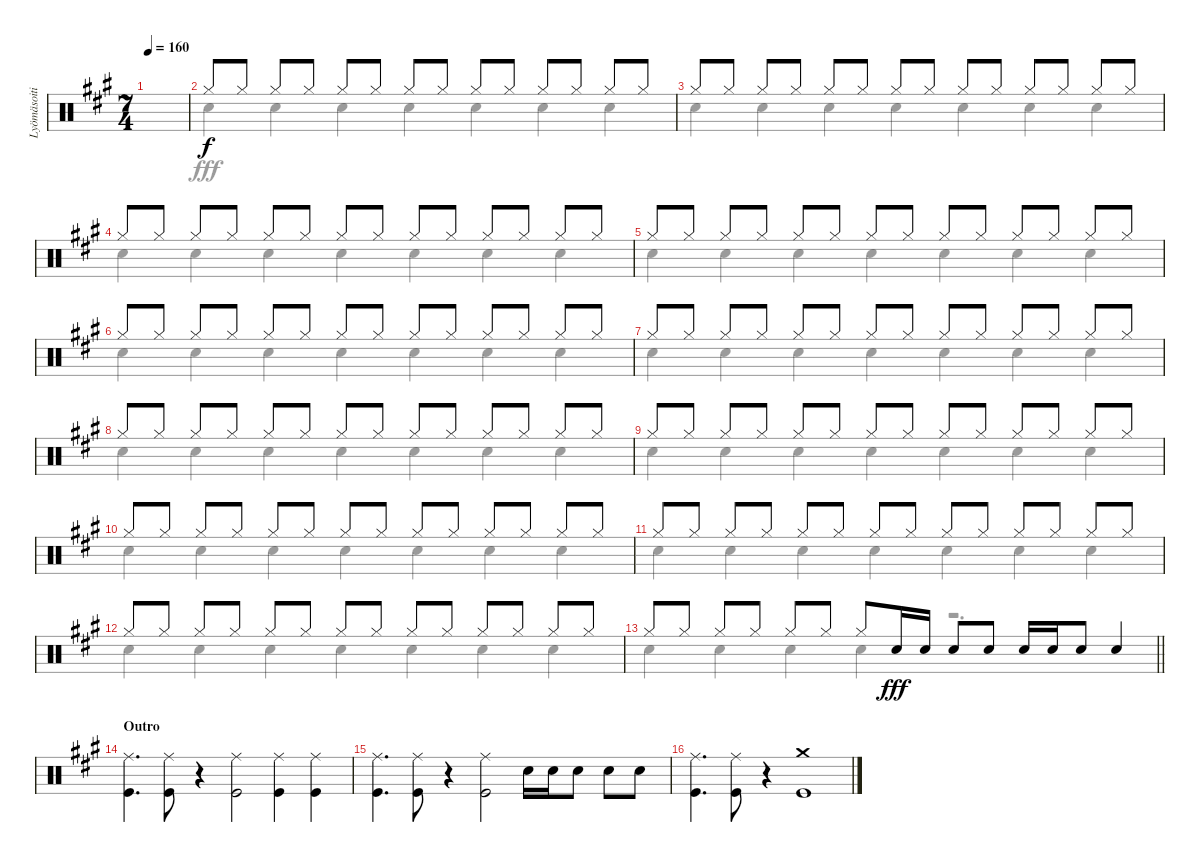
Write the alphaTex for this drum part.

\track ("Lyömäsoitin" "Lyömäsoiti") {instrument percussion}
\staff {score}
\articulation defaults
\voice
\ts (7 4)
\tempo 160
\clef neutral
\ks a
|
"Hi-Hat (closed)".8{dy f} "Hi-Hat (closed)".8 "Hi-Hat (closed)".8 "Hi-Hat (closed)".8 "Hi-Hat (closed)".8 "Hi-Hat (closed)".8 "Hi-Hat (closed)".8 "Hi-Hat (closed)".8 "Hi-Hat (closed)".8 "Hi-Hat (closed)".8 "Hi-Hat (closed)".8 "Hi-Hat (closed)".8 "Hi-Hat (closed)".8 "Hi-Hat (closed)".8 |
"Hi-Hat (closed)".8 "Hi-Hat (closed)".8 "Hi-Hat (closed)".8 "Hi-Hat (closed)".8 "Hi-Hat (closed)".8 "Hi-Hat (closed)".8 "Hi-Hat (closed)".8 "Hi-Hat (closed)".8 "Hi-Hat (closed)".8 "Hi-Hat (closed)".8 "Hi-Hat (closed)".8 "Hi-Hat (closed)".8 "Hi-Hat (closed)".8 "Hi-Hat (closed)".8 |
"Hi-Hat (closed)".8 "Hi-Hat (closed)".8 "Hi-Hat (closed)".8 "Hi-Hat (closed)".8 "Hi-Hat (closed)".8 "Hi-Hat (closed)".8 "Hi-Hat (closed)".8 "Hi-Hat (closed)".8 "Hi-Hat (closed)".8 "Hi-Hat (closed)".8 "Hi-Hat (closed)".8 "Hi-Hat (closed)".8 "Hi-Hat (closed)".8 "Hi-Hat (closed)".8 |
"Hi-Hat (closed)".8 "Hi-Hat (closed)".8 "Hi-Hat (closed)".8 "Hi-Hat (closed)".8 "Hi-Hat (closed)".8 "Hi-Hat (closed)".8 "Hi-Hat (closed)".8 "Hi-Hat (closed)".8 "Hi-Hat (closed)".8 "Hi-Hat (closed)".8 "Hi-Hat (closed)".8 "Hi-Hat (closed)".8 "Hi-Hat (closed)".8 "Hi-Hat (closed)".8 |
"Hi-Hat (closed)".8 "Hi-Hat (closed)".8 "Hi-Hat (closed)".8 "Hi-Hat (closed)".8 "Hi-Hat (closed)".8 "Hi-Hat (closed)".8 "Hi-Hat (closed)".8 "Hi-Hat (closed)".8 "Hi-Hat (closed)".8 "Hi-Hat (closed)".8 "Hi-Hat (closed)".8 "Hi-Hat (closed)".8 "Hi-Hat (closed)".8 "Hi-Hat (closed)".8 |
"Hi-Hat (closed)".8 "Hi-Hat (closed)".8 "Hi-Hat (closed)".8 "Hi-Hat (closed)".8 "Hi-Hat (closed)".8 "Hi-Hat (closed)".8 "Hi-Hat (closed)".8 "Hi-Hat (closed)".8 "Hi-Hat (closed)".8 "Hi-Hat (closed)".8 "Hi-Hat (closed)".8 "Hi-Hat (closed)".8 "Hi-Hat (closed)".8 "Hi-Hat (closed)".8 |
"Hi-Hat (closed)".8 "Hi-Hat (closed)".8 "Hi-Hat (closed)".8 "Hi-Hat (closed)".8 "Hi-Hat (closed)".8 "Hi-Hat (closed)".8 "Hi-Hat (closed)".8 "Hi-Hat (closed)".8 "Hi-Hat (closed)".8 "Hi-Hat (closed)".8 "Hi-Hat (closed)".8 "Hi-Hat (closed)".8 "Hi-Hat (closed)".8 "Hi-Hat (closed)".8 |
"Hi-Hat (closed)".8 "Hi-Hat (closed)".8 "Hi-Hat (closed)".8 "Hi-Hat (closed)".8 "Hi-Hat (closed)".8 "Hi-Hat (closed)".8 "Hi-Hat (closed)".8 "Hi-Hat (closed)".8 "Hi-Hat (closed)".8 "Hi-Hat (closed)".8 "Hi-Hat (closed)".8 "Hi-Hat (closed)".8 "Hi-Hat (closed)".8 "Hi-Hat (closed)".8 |
"Hi-Hat (closed)".8 "Hi-Hat (closed)".8 "Hi-Hat (closed)".8 "Hi-Hat (closed)".8 "Hi-Hat (closed)".8 "Hi-Hat (closed)".8 "Hi-Hat (closed)".8 "Hi-Hat (closed)".8 "Hi-Hat (closed)".8 "Hi-Hat (closed)".8 "Hi-Hat (closed)".8 "Hi-Hat (closed)".8 "Hi-Hat (closed)".8 "Hi-Hat (closed)".8 |
"Hi-Hat (closed)".8 "Hi-Hat (closed)".8 "Hi-Hat (closed)".8 "Hi-Hat (closed)".8 "Hi-Hat (closed)".8 "Hi-Hat (closed)".8 "Hi-Hat (closed)".8 "Hi-Hat (closed)".8 "Hi-Hat (closed)".8 "Hi-Hat (closed)".8 "Hi-Hat (closed)".8 "Hi-Hat (closed)".8 "Hi-Hat (closed)".8 "Hi-Hat (closed)".8 |
"Hi-Hat (closed)".8 "Hi-Hat (closed)".8 "Hi-Hat (closed)".8 "Hi-Hat (closed)".8 "Hi-Hat (closed)".8 "Hi-Hat (closed)".8 "Hi-Hat (closed)".8 "Hi-Hat (closed)".8 "Hi-Hat (closed)".8 "Hi-Hat (closed)".8 "Hi-Hat (closed)".8 "Hi-Hat (closed)".8 "Hi-Hat (closed)".8 "Hi-Hat (closed)".8 |
\barLineRight lightlight "Hi-Hat (closed)".8 "Hi-Hat (closed)".8 "Hi-Hat (closed)".8 "Hi-Hat (closed)".8 "Hi-Hat (closed)".8 "Hi-Hat (closed)".8 "Hi-Hat (closed)".8 "Snare (hit) 2".16{dy fff} "Snare (hit) 2".16 "Snare (hit) 2".8 "Snare (hit) 2".8 "Snare (hit) 2".16 "Snare (hit) 2".16 "Snare (hit) 2".8 "Snare (hit) 2".4
|
\section ("" "Outro")
("Ride (middle)" "Kick (hit)").4{d volume 12} ("Ride (middle)" "Kick (hit)").8 r.4 ("Ride (middle)" "Kick (hit)").2 ("Ride (middle)" "Kick (hit)").4 ("Ride (middle)" "Kick (hit)").4 |
("Ride (middle)" "Kick (hit)").4{d} ("Ride (middle)" "Kick (hit)").8 r.4 ("Ride (middle)" "Kick (hit)").2 "Snare (hit) 2".16 "Snare (hit) 2".16 "Snare (hit) 2".8 "Snare (hit) 2".8 "Snare (hit) 2".8 |
("Ride (middle)" "Kick (hit)").4{d volume 12} ("Ride (middle)" "Kick (hit)").8 r.4 ("Crash medium (hit)" "Kick (hit)").1
\voice
\clef neutral
\ottava regular
\simile none
\ks a
|
"Snare (hit) 2".4{dy fff} "Snare (hit) 2".4 "Snare (hit) 2".4 "Snare (hit) 2".4 "Snare (hit) 2".4 "Snare (hit) 2".4 "Snare (hit) 2".4 |
"Snare (hit) 2".4 "Snare (hit) 2".4 "Snare (hit) 2".4 "Snare (hit) 2".4 "Snare (hit) 2".4 "Snare (hit) 2".4 "Snare (hit) 2".4 |
"Snare (hit) 2".4 "Snare (hit) 2".4 "Snare (hit) 2".4 "Snare (hit) 2".4 "Snare (hit) 2".4 "Snare (hit) 2".4 "Snare (hit) 2".4 |
"Snare (hit) 2".4 "Snare (hit) 2".4 "Snare (hit) 2".4 "Snare (hit) 2".4 "Snare (hit) 2".4 "Snare (hit) 2".4 "Snare (hit) 2".4 |
"Snare (hit) 2".4 "Snare (hit) 2".4 "Snare (hit) 2".4 "Snare (hit) 2".4 "Snare (hit) 2".4 "Snare (hit) 2".4 "Snare (hit) 2".4 |
"Snare (hit) 2".4 "Snare (hit) 2".4 "Snare (hit) 2".4 "Snare (hit) 2".4 "Snare (hit) 2".4 "Snare (hit) 2".4 "Snare (hit) 2".4 |
"Snare (hit) 2".4 "Snare (hit) 2".4 "Snare (hit) 2".4 "Snare (hit) 2".4 "Snare (hit) 2".4 "Snare (hit) 2".4 "Snare (hit) 2".4 |
"Snare (hit) 2".4 "Snare (hit) 2".4 "Snare (hit) 2".4 "Snare (hit) 2".4 "Snare (hit) 2".4 "Snare (hit) 2".4 "Snare (hit) 2".4 |
"Snare (hit) 2".4 "Snare (hit) 2".4 "Snare (hit) 2".4 "Snare (hit) 2".4 "Snare (hit) 2".4 "Snare (hit) 2".4 "Snare (hit) 2".4 |
"Snare (hit) 2".4 "Snare (hit) 2".4 "Snare (hit) 2".4 "Snare (hit) 2".4 "Snare (hit) 2".4 "Snare (hit) 2".4 "Snare (hit) 2".4 |
"Snare (hit) 2".4 "Snare (hit) 2".4 "Snare (hit) 2".4 "Snare (hit) 2".4 "Snare (hit) 2".4 "Snare (hit) 2".4 "Snare (hit) 2".4 |
\barLineRight lightlight "Snare (hit) 2".4 "Snare (hit) 2".4 "Snare (hit) 2".4 "Snare (hit) 2".4
r.2{d} |
|
|
